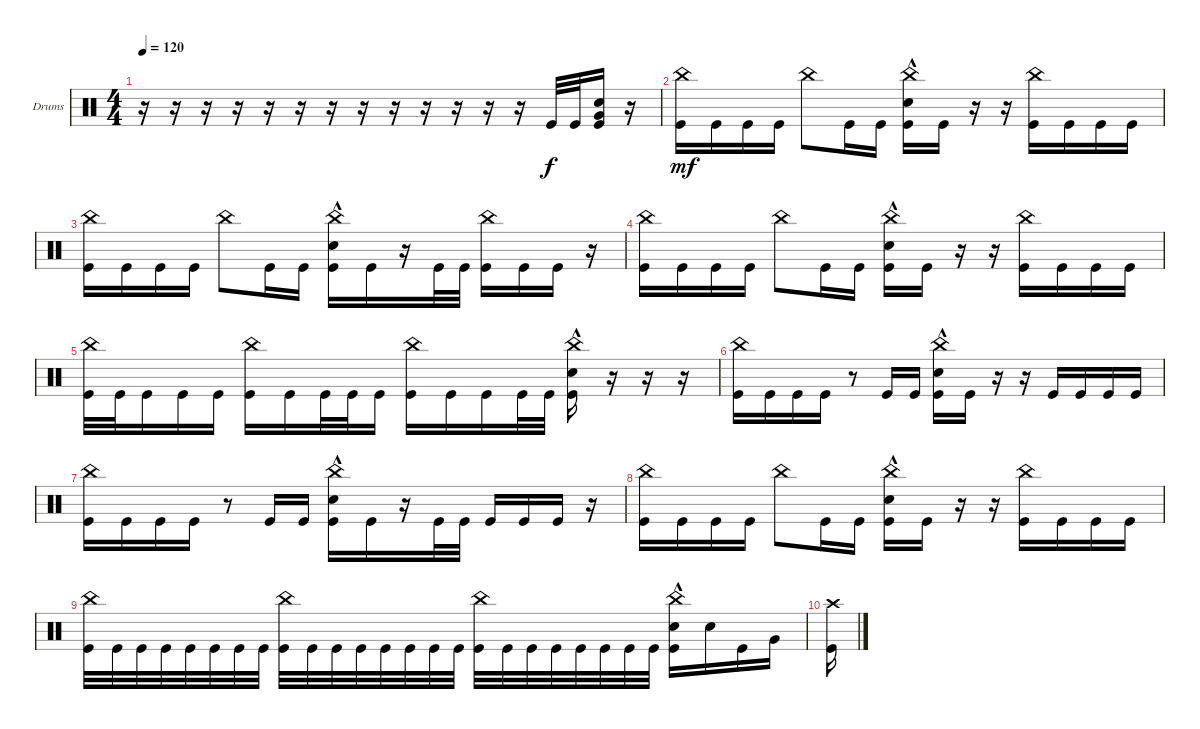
\defaultSystemsLayout 4
\bracketExtendMode groupsimilarinstruments
\firstSystemTrackNameOrientation horizontal
\otherSystemsTrackNameOrientation horizontal
\track ("Drumkit" "Drums") {instrument percussion}
\staff {score}
\articulation defaults
\ts (4 4)
\tempo 120
\clef neutral
\ks c
r.16{dy mf} r.16 r.16 r.16 r.16 r.16 r.16 r.16 r.16 r.16 r.16 r.16 r.16 "Kick (hit)".32{dy f} "Kick (hit)".32 ("Kick (hit)" "Very Low Tom (hit)" "Snare (hit) 2").16 r.16 |
("China (hit)" "Kick (hit)").16{dy mf} "Kick (hit)".16 "Kick (hit)".16 "Kick (hit)".16 "China (hit)".8 "Kick (hit)".16 "Kick (hit)".16 ("Kick (hit)" "China (hit)" "Snare (hit) 2"{hac}).16 "Kick (hit)".16 r.16 r.16 ("China (hit)" "Kick (hit)").16 "Kick (hit)".16 "Kick (hit)".16 "Kick (hit)".16 |
("China (hit)" "Kick (hit)").16 "Kick (hit)".16 "Kick (hit)".16 "Kick (hit)".16 "China (hit)".8 "Kick (hit)".16 "Kick (hit)".16 ("Kick (hit)" "China (hit)" "Snare (hit) 2"{hac}).16 "Kick (hit)".16 r.16 "Kick (hit)".32 "Kick (hit)".32 ("China (hit)" "Kick (hit)").16 "Kick (hit)".16 "Kick (hit)".16 r.16 |
("China (hit)" "Kick (hit)").16 "Kick (hit)".16 "Kick (hit)".16 "Kick (hit)".16 "China (hit)".8 "Kick (hit)".16 "Kick (hit)".16 ("Kick (hit)" "China (hit)" "Snare (hit) 2"{hac}).16 "Kick (hit)".16 r.16 r.16 ("China (hit)" "Kick (hit)").16 "Kick (hit)".16 "Kick (hit)".16 "Kick (hit)".16 |
("China (hit)" "Kick (hit)").32 "Kick (hit)".32 "Kick (hit)".16 "Kick (hit)".16 "Kick (hit)".16 ("China (hit)" "Kick (hit)").16 "Kick (hit)".16 "Kick (hit)".32 "Kick (hit)".32 "Kick (hit)".16 ("Kick (hit)" "China (hit)").16 "Kick (hit)".16 "Kick (hit)".16 "Kick (hit)".32 "Kick (hit)".32 ("China (hit)" "Kick (hit)" "Snare (hit) 2"{hac}).16 r.16 r.16 r.16 |
("China (hit)" "Kick (hit)").16 "Kick (hit)".16 "Kick (hit)".16 "Kick (hit)".16 r.8 "Kick (hit)".16 "Kick (hit)".16 ("Kick (hit)" "China (hit)" "Snare (hit) 2"{hac}).16 "Kick (hit)".16 r.16 r.16 "Kick (hit)".16 "Kick (hit)".16 "Kick (hit)".16 "Kick (hit)".16 |
("China (hit)" "Kick (hit)").16 "Kick (hit)".16 "Kick (hit)".16 "Kick (hit)".16 r.8 "Kick (hit)".16 "Kick (hit)".16 ("Kick (hit)" "China (hit)" "Snare (hit) 2"{hac}).16 "Kick (hit)".16 r.16 "Kick (hit)".32 "Kick (hit)".32 "Kick (hit)".16 "Kick (hit)".16 "Kick (hit)".16 r.16 |
("China (hit)" "Kick (hit)").16 "Kick (hit)".16 "Kick (hit)".16 "Kick (hit)".16 "China (hit)".8 "Kick (hit)".16 "Kick (hit)".16 ("Kick (hit)" "China (hit)" "Snare (hit) 2"{hac}).16 "Kick (hit)".16 r.16 r.16 ("China (hit)" "Kick (hit)").16 "Kick (hit)".16 "Kick (hit)".16 "Kick (hit)".16 |
("China (hit)" "Kick (hit)").32 "Kick (hit)".32 "Kick (hit)".32 "Kick (hit)".32 "Kick (hit)".32 "Kick (hit)".32 "Kick (hit)".32 "Kick (hit)".32 ("China (hit)" "Kick (hit)").32 "Kick (hit)".32 "Kick (hit)".32 "Kick (hit)".32 "Kick (hit)".32 "Kick (hit)".32 "Kick (hit)".32 "Kick (hit)".32 ("Kick (hit)" "China (hit)").32 "Kick (hit)".32 "Kick (hit)".32 "Kick (hit)".32 "Kick (hit)".32 "Kick (hit)".32 "Kick (hit)".32 "Kick (hit)".32 ("China (hit)" "Kick (hit)" "Snare (hit) 2"{hac}).16 "Snare (hit) 2".16 "Kick (hit)".16 "Very Low Tom (hit)".16 |
("Crash high (hit)" "Kick (hit)").16
